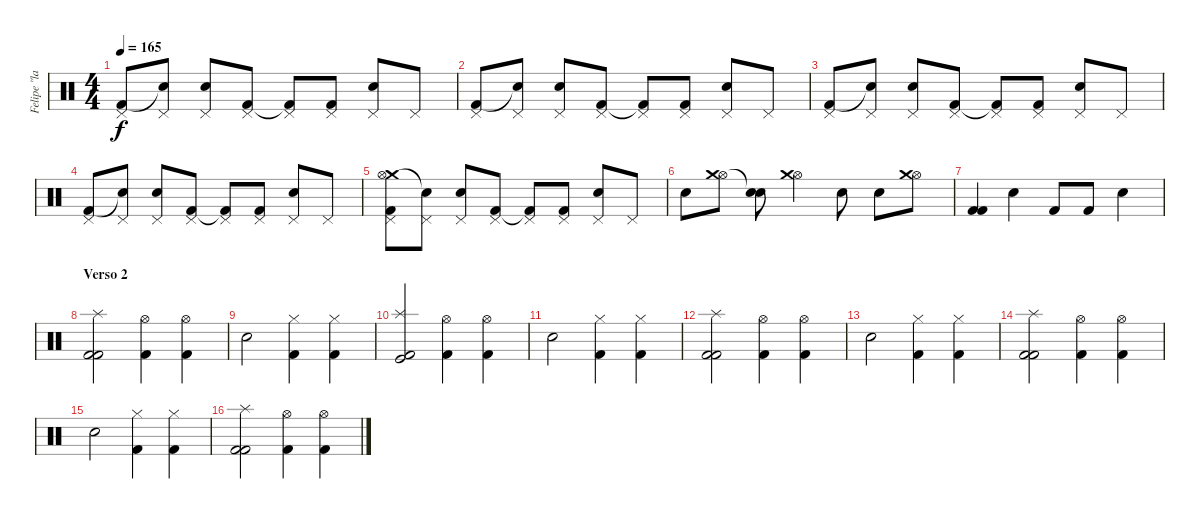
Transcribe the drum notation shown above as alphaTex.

\track ("Felipe \"la caponera\" Muñoz" "Felipe \"la") {instrument percussion}
\staff {score}
\articulation defaults
\ts (4 4)
\tempo 165
\clef neutral
\ks c
("Pedal Hi-Hat (hit)" "Kick (hit) 2").8{dy f} ("Pedal Hi-Hat (hit)" "Snare (hit)"{t}).8 ("Pedal Hi-Hat (hit)" "Electric Snare (hit)").8 ("Pedal Hi-Hat (hit)" "Kick (hit) 2").8 ("Pedal Hi-Hat (hit)" "Kick (hit) 2"{t}).8 ("Pedal Hi-Hat (hit)" "Kick (hit) 2").8 ("Pedal Hi-Hat (hit)" "Electric Snare (hit)").8 "Pedal Hi-Hat (hit)".8 |
("Pedal Hi-Hat (hit)" "Kick (hit) 2").8 ("Pedal Hi-Hat (hit)" "Snare (hit)"{t}).8 ("Pedal Hi-Hat (hit)" "Electric Snare (hit)").8 ("Pedal Hi-Hat (hit)" "Kick (hit) 2").8 ("Pedal Hi-Hat (hit)" "Kick (hit) 2"{t}).8 ("Pedal Hi-Hat (hit)" "Kick (hit) 2").8 ("Pedal Hi-Hat (hit)" "Electric Snare (hit)").8 "Pedal Hi-Hat (hit)".8 |
("Pedal Hi-Hat (hit)" "Kick (hit) 2").8 ("Pedal Hi-Hat (hit)" "Snare (hit)"{t}).8 ("Pedal Hi-Hat (hit)" "Electric Snare (hit)").8 ("Pedal Hi-Hat (hit)" "Kick (hit) 2").8 ("Pedal Hi-Hat (hit)" "Kick (hit) 2"{t}).8 ("Pedal Hi-Hat (hit)" "Kick (hit) 2").8 ("Pedal Hi-Hat (hit)" "Electric Snare (hit)").8 "Pedal Hi-Hat (hit)".8 |
("Pedal Hi-Hat (hit)" "Kick (hit) 2").8 ("Pedal Hi-Hat (hit)" "Snare (hit)"{t}).8 ("Pedal Hi-Hat (hit)" "Electric Snare (hit)").8 ("Pedal Hi-Hat (hit)" "Kick (hit) 2").8 ("Pedal Hi-Hat (hit)" "Kick (hit) 2"{t}).8 ("Pedal Hi-Hat (hit)" "Kick (hit) 2").8 ("Pedal Hi-Hat (hit)" "Electric Snare (hit)").8 "Pedal Hi-Hat (hit)".8 |
("Pedal Hi-Hat (hit)" "Crash medium (hit)" "Hi-Hat (open)" "Kick (hit) 2").8 ("Pedal Hi-Hat (hit)" "Snare (hit)"{t}).8 ("Pedal Hi-Hat (hit)" "Electric Snare (hit)").8 ("Pedal Hi-Hat (hit)" "Kick (hit) 2").8 ("Pedal Hi-Hat (hit)" "Kick (hit) 2"{t}).8 ("Pedal Hi-Hat (hit)" "Kick (hit) 2").8 ("Pedal Hi-Hat (hit)" "Electric Snare (hit)").8 "Pedal Hi-Hat (hit)".8 |
"Electric Snare (hit)".8 ("Hi-Hat (open)" "Crash medium (hit)").8 ("Snare (hit)"{t} "Electric Snare (hit)").8 ("Hi-Hat (open)" "Crash medium (hit)").4 "Electric Snare (hit)".8 "Electric Snare (hit)".8 ("Hi-Hat (open)" "Crash medium (hit)").8 |
("Kick (hit) 2" "Kick (hit) 2").4 "Electric Snare (hit)".4 "Kick (hit) 2".8 "Kick (hit) 2".8 "Electric Snare (hit)".4 |
\section ("" "Verso 2")
("Splash (hit)" "Kick (hit) 2" "Kick (hit) 2").2 ("Hi-Hat (open)" "Kick (hit) 2").4 ("Hi-Hat (open)" "Kick (hit) 2").4 |
"Electric Snare (hit)".2 ("Hi-Hat (closed)" "Kick (hit) 2").4 ("Hi-Hat (closed)" "Kick (hit) 2").4 |
("Splash (hit)" "Kick (hit) 2" "Kick (hit)").2 ("Hi-Hat (open)" "Kick (hit) 2").4 ("Hi-Hat (open)" "Kick (hit) 2").4 |
"Electric Snare (hit)".2 ("Hi-Hat (closed)" "Kick (hit) 2").4 ("Hi-Hat (closed)" "Kick (hit) 2").4 |
("Splash (hit)" "Kick (hit) 2" "Kick (hit) 2").2 ("Hi-Hat (open)" "Kick (hit) 2").4 ("Hi-Hat (open)" "Kick (hit) 2").4 |
"Electric Snare (hit)".2 ("Hi-Hat (closed)" "Kick (hit) 2").4 ("Hi-Hat (closed)" "Kick (hit) 2").4 |
("Splash (hit)" "Kick (hit) 2" "Kick (hit) 2").2 ("Hi-Hat (open)" "Kick (hit) 2").4 ("Hi-Hat (open)" "Kick (hit) 2").4 |
"Electric Snare (hit)".2 ("Hi-Hat (closed)" "Kick (hit) 2").4 ("Hi-Hat (closed)" "Kick (hit) 2").4 |
("Splash (hit)" "Kick (hit) 2" "Kick (hit) 2").2 ("Hi-Hat (open)" "Kick (hit) 2").4 ("Hi-Hat (open)" "Kick (hit) 2").4
